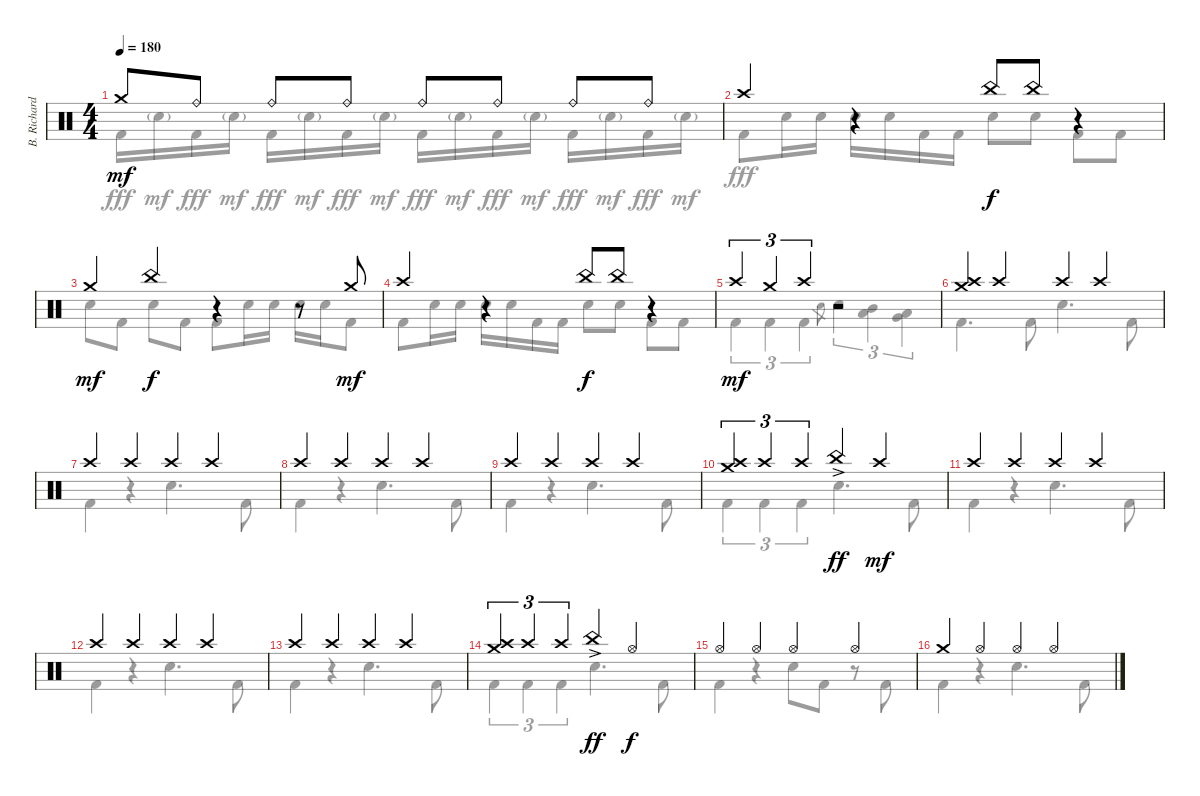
\track ("B. Richardson Drums" "B. Richard") {instrument percussion}
\staff {score}
\articulation defaults
\voice
\ts (4 4)
\tempo 180
\clef neutral
\ks c "Crash medium (hit)".8{dy mf} "Ride (bell)".8 "Ride (bell)".8 "Ride (bell)".8 "Ride (bell)".8 "Ride (bell)".8 "Ride (bell)".8 "Ride (bell)".8
|
"Crash high (hit)".4 r.4 "China (hit)".8{dy f} "China (hit)".8 r.4 |
"Crash medium (hit)".4{dy mf} "China (hit)".4{dy f} r.4 r.8 "Crash medium (hit)".8{dy mf} |
"Crash high (hit)".4 r.4 "China (hit)".8{dy f} "China (hit)".8 r.4 |
"Crash high (hit)".4{tu (3 2) dy mf} "Crash medium (hit)".4{tu (3 2)} "Crash high (hit)".4{tu (3 2)} r.2 |
("Crash high (hit)" "Crash medium (hit)").4 "Crash high (hit)".4 "Crash high (hit)".4 "Crash high (hit)".4 |
"Crash high (hit)".4 "Crash high (hit)".4 "Crash high (hit)".4 "Crash high (hit)".4 |
"Crash high (hit)".4 "Crash high (hit)".4 "Crash high (hit)".4 "Crash high (hit)".4 |
"Crash high (hit)".4 "Crash high (hit)".4 "Crash high (hit)".4 "Crash high (hit)".4 |
("Crash high (hit)" "Crash medium (hit)").4{tu (3 2)} "Crash high (hit)".4{tu (3 2)} "Crash high (hit)".4{tu (3 2)} "China (hit)"{ac}.4{dy ff} "Crash high (hit)".4{dy mf} |
"Crash high (hit)".4 "Crash high (hit)".4 "Crash high (hit)".4 "Crash high (hit)".4 |
"Crash high (hit)".4 "Crash high (hit)".4 "Crash high (hit)".4 "Crash high (hit)".4 |
"Crash high (hit)".4 "Crash high (hit)".4 "Crash high (hit)".4 "Crash high (hit)".4 |
("Crash high (hit)" "Crash medium (hit)").4{tu (3 2)} "Crash high (hit)".4{tu (3 2)} "Crash high (hit)".4{tu (3 2)} "China (hit)"{ac}.4{dy ff} "Hi-Hat (open)".4{dy f} |
"Hi-Hat (open)".4 "Hi-Hat (open)".4 "Hi-Hat (open)".4 "Hi-Hat (open)".4 |
"Crash medium (hit)".4 "Hi-Hat (open)".4 "Hi-Hat (open)".4 "Hi-Hat (open)".4
\voice
\clef neutral
\ottava regular
\simile none
\ks c "Kick (hit) 2".16{dy fff} "Electric Snare (hit)"{g}.16{dy mf} "Kick (hit) 2".16{dy fff} "Electric Snare (hit)"{g}.16{dy mf} "Kick (hit) 2".16{dy fff} "Electric Snare (hit)"{g}.16{dy mf} "Kick (hit) 2".16{dy fff} "Electric Snare (hit)"{g}.16{dy mf} "Kick (hit) 2".16{dy fff} "Electric Snare (hit)"{g}.16{dy mf} "Kick (hit) 2".16{dy fff} "Electric Snare (hit)"{g}.16{dy mf} "Kick (hit) 2".16{dy fff} "Electric Snare (hit)"{g}.16{dy mf} "Kick (hit) 2".16{dy fff} "Electric Snare (hit)"{g}.16{dy mf}
|
"Kick (hit) 2".8{dy fff} "Electric Snare (hit)".16 "Electric Snare (hit)".16 "Electric Snare (hit)".16 "Electric Snare (hit)".16 "Kick (hit) 2".16 "Kick (hit) 2".16 "Electric Snare (hit)".8 "Electric Snare (hit)".8 "Kick (hit) 2".8 "Kick (hit) 2".8 |
"Electric Snare (hit)".8 "Kick (hit) 2".8 "Electric Snare (hit)".8 "Kick (hit) 2".8 "Kick (hit) 2".8 "Electric Snare (hit)".16 "Electric Snare (hit)".16 "Electric Snare (hit)".16 "Electric Snare (hit)".16 "Kick (hit) 2".8 |
"Kick (hit) 2".8 "Electric Snare (hit)".16 "Electric Snare (hit)".16 "Electric Snare (hit)".16 "Electric Snare (hit)".16 "Kick (hit) 2".16 "Kick (hit) 2".16 "Electric Snare (hit)".8 "Electric Snare (hit)".8 "Kick (hit) 2".8 "Kick (hit) 2".8 |
"Kick (hit) 2".4{tu (3 2)} "Kick (hit) 2".4{tu (3 2)} "Kick (hit) 2".4{tu (3 2)} "Electric Snare (hit)".8{gr} "Electric Snare (hit)".4{tu (3 2)} ("Mid Tom (hit)" "Low Tom (hit)").4{tu (3 2)} ("Low Tom (hit)" "Very Low Tom (hit)").4{tu (3 2)} |
"Kick (hit) 2".4{d} "Kick (hit) 2".8 "Electric Snare (hit)".4{d} "Kick (hit) 2".8 |
"Kick (hit) 2".4 r.4 "Electric Snare (hit)".4{d} "Kick (hit) 2".8 |
"Kick (hit) 2".4 r.4 "Electric Snare (hit)".4{d} "Kick (hit) 2".8 |
"Kick (hit) 2".4 r.4 "Electric Snare (hit)".4{d} "Kick (hit) 2".8 |
"Kick (hit) 2".4{tu (3 2)} "Kick (hit) 2".4{tu (3 2)} "Kick (hit) 2".4{tu (3 2)} "Electric Snare (hit)".4{d} "Kick (hit) 2".8 |
"Kick (hit) 2".4 r.4 "Electric Snare (hit)".4{d} "Kick (hit) 2".8 |
"Kick (hit) 2".4 r.4 "Electric Snare (hit)".4{d} "Kick (hit) 2".8 |
"Kick (hit) 2".4 r.4 "Electric Snare (hit)".4{d} "Kick (hit) 2".8 |
"Kick (hit) 2".4{tu (3 2)} "Kick (hit) 2".4{tu (3 2)} "Kick (hit) 2".4{tu (3 2)} "Electric Snare (hit)".4{d} "Kick (hit) 2".8 |
"Kick (hit) 2".4 r.4 "Electric Snare (hit)".8 "Kick (hit) 2".8 r.8 "Kick (hit) 2".8 |
"Kick (hit) 2".4 r.4 "Electric Snare (hit)".4{d} "Kick (hit) 2".8
